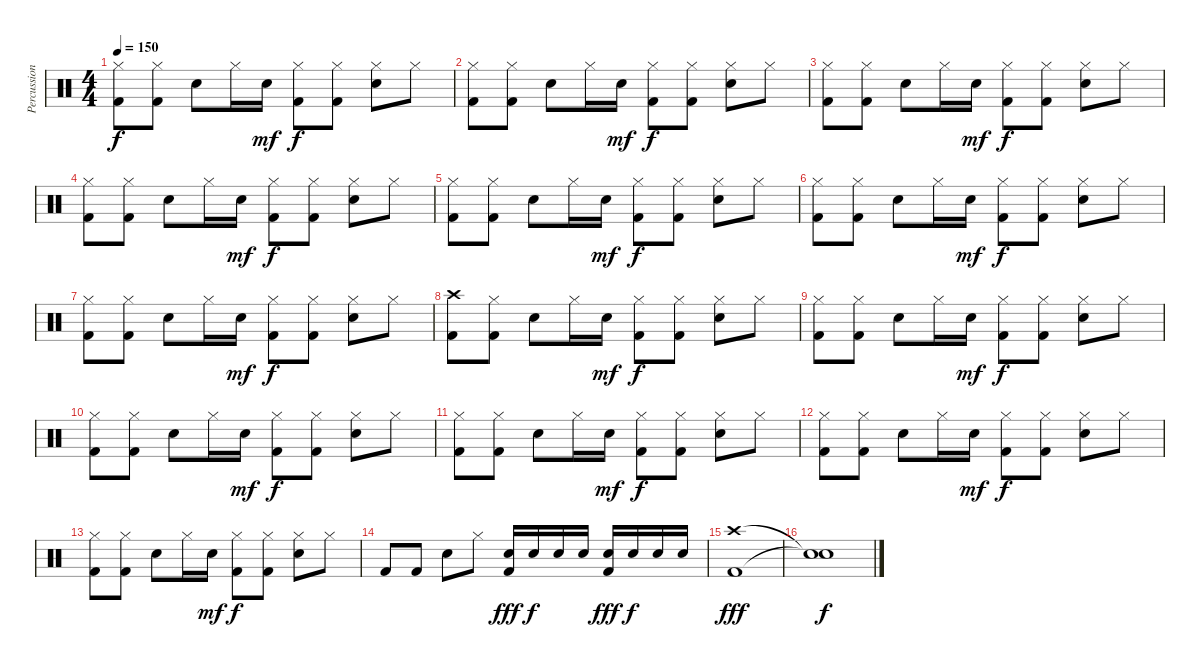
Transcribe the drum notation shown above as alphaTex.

\track ("Percussion" "Percussion") {instrument percussion}
\staff {score}
\articulation defaults
\ts (4 4)
\tempo 150
\clef neutral
\ks c
("Kick (hit) 2" "Hi-Hat (closed)").8{dy f} ("Kick (hit) 2" "Hi-Hat (closed)").8 "Electric Snare (hit)".8 "Hi-Hat (closed)".16 "Electric Snare (hit)".16{dy mf} ("Kick (hit) 2" "Hi-Hat (closed)").8{dy f} ("Kick (hit) 2" "Hi-Hat (closed)").8 ("Electric Snare (hit)" "Hi-Hat (closed)").8 "Hi-Hat (closed)".8 |
("Kick (hit) 2" "Hi-Hat (closed)").8 ("Kick (hit) 2" "Hi-Hat (closed)").8 "Electric Snare (hit)".8 "Hi-Hat (closed)".16 "Electric Snare (hit)".16{dy mf} ("Kick (hit) 2" "Hi-Hat (closed)").8{dy f} ("Kick (hit) 2" "Hi-Hat (closed)").8 ("Electric Snare (hit)" "Hi-Hat (closed)").8 "Hi-Hat (closed)".8 |
("Kick (hit) 2" "Hi-Hat (closed)").8 ("Kick (hit) 2" "Hi-Hat (closed)").8 "Electric Snare (hit)".8 "Hi-Hat (closed)".16 "Electric Snare (hit)".16{dy mf} ("Kick (hit) 2" "Hi-Hat (closed)").8{dy f} ("Kick (hit) 2" "Hi-Hat (closed)").8 ("Electric Snare (hit)" "Hi-Hat (closed)").8 "Hi-Hat (closed)".8 |
("Kick (hit) 2" "Hi-Hat (closed)").8 ("Kick (hit) 2" "Hi-Hat (closed)").8 "Electric Snare (hit)".8 "Hi-Hat (closed)".16 "Electric Snare (hit)".16{dy mf} ("Kick (hit) 2" "Hi-Hat (closed)").8{dy f} ("Kick (hit) 2" "Hi-Hat (closed)").8 ("Electric Snare (hit)" "Hi-Hat (closed)").8 "Hi-Hat (closed)".8 |
("Kick (hit) 2" "Hi-Hat (closed)").8 ("Kick (hit) 2" "Hi-Hat (closed)").8 "Electric Snare (hit)".8 "Hi-Hat (closed)".16 "Electric Snare (hit)".16{dy mf} ("Kick (hit) 2" "Hi-Hat (closed)").8{dy f} ("Kick (hit) 2" "Hi-Hat (closed)").8 ("Electric Snare (hit)" "Hi-Hat (closed)").8 "Hi-Hat (closed)".8 |
("Kick (hit) 2" "Hi-Hat (closed)").8 ("Kick (hit) 2" "Hi-Hat (closed)").8 "Electric Snare (hit)".8 "Hi-Hat (closed)".16 "Electric Snare (hit)".16{dy mf} ("Kick (hit) 2" "Hi-Hat (closed)").8{dy f} ("Kick (hit) 2" "Hi-Hat (closed)").8 ("Electric Snare (hit)" "Hi-Hat (closed)").8 "Hi-Hat (closed)".8 |
("Kick (hit) 2" "Hi-Hat (closed)").8 ("Kick (hit) 2" "Hi-Hat (closed)").8 "Electric Snare (hit)".8 "Hi-Hat (closed)".16 "Electric Snare (hit)".16{dy mf} ("Kick (hit) 2" "Hi-Hat (closed)").8{dy f} ("Kick (hit) 2" "Hi-Hat (closed)").8 ("Electric Snare (hit)" "Hi-Hat (closed)").8 "Hi-Hat (closed)".8 |
("Kick (hit) 2" "Crash high (hit)").8 ("Kick (hit) 2" "Hi-Hat (closed)").8 "Electric Snare (hit)".8 "Hi-Hat (closed)".16 "Electric Snare (hit)".16{dy mf} ("Kick (hit) 2" "Hi-Hat (closed)").8{dy f} ("Kick (hit) 2" "Hi-Hat (closed)").8 ("Electric Snare (hit)" "Hi-Hat (closed)").8 "Hi-Hat (closed)".8 |
("Kick (hit) 2" "Hi-Hat (closed)").8 ("Kick (hit) 2" "Hi-Hat (closed)").8 "Electric Snare (hit)".8 "Hi-Hat (closed)".16 "Electric Snare (hit)".16{dy mf} ("Kick (hit) 2" "Hi-Hat (closed)").8{dy f} ("Kick (hit) 2" "Hi-Hat (closed)").8 ("Electric Snare (hit)" "Hi-Hat (closed)").8 "Hi-Hat (closed)".8 |
("Kick (hit) 2" "Hi-Hat (closed)").8 ("Kick (hit) 2" "Hi-Hat (closed)").8 "Electric Snare (hit)".8 "Hi-Hat (closed)".16 "Electric Snare (hit)".16{dy mf} ("Kick (hit) 2" "Hi-Hat (closed)").8{dy f} ("Kick (hit) 2" "Hi-Hat (closed)").8 ("Electric Snare (hit)" "Hi-Hat (closed)").8 "Hi-Hat (closed)".8 |
("Kick (hit) 2" "Hi-Hat (closed)").8 ("Kick (hit) 2" "Hi-Hat (closed)").8 "Electric Snare (hit)".8 "Hi-Hat (closed)".16 "Electric Snare (hit)".16{dy mf} ("Kick (hit) 2" "Hi-Hat (closed)").8{dy f} ("Kick (hit) 2" "Hi-Hat (closed)").8 ("Electric Snare (hit)" "Hi-Hat (closed)").8 "Hi-Hat (closed)".8 |
("Kick (hit) 2" "Hi-Hat (closed)").8 ("Kick (hit) 2" "Hi-Hat (closed)").8 "Electric Snare (hit)".8 "Hi-Hat (closed)".16 "Electric Snare (hit)".16{dy mf} ("Kick (hit) 2" "Hi-Hat (closed)").8{dy f} ("Kick (hit) 2" "Hi-Hat (closed)").8 ("Electric Snare (hit)" "Hi-Hat (closed)").8 "Hi-Hat (closed)".8 |
("Kick (hit) 2" "Hi-Hat (closed)").8 ("Kick (hit) 2" "Hi-Hat (closed)").8 "Electric Snare (hit)".8 "Hi-Hat (closed)".16 "Electric Snare (hit)".16{dy mf} ("Kick (hit) 2" "Hi-Hat (closed)").8{dy f} ("Kick (hit) 2" "Hi-Hat (closed)").8 ("Electric Snare (hit)" "Hi-Hat (closed)").8 "Hi-Hat (closed)".8 |
"Kick (hit) 2".8 "Kick (hit) 2".8 "Electric Snare (hit)".8 "Hi-Hat (closed)".8 ("Snare (hit) 2" "Kick (hit) 2").16{dy fff} "Electric Snare (hit)".16{dy f} "Electric Snare (hit)".16 "Electric Snare (hit)".16 ("Snare (hit) 2" "Kick (hit) 2").16{dy fff} "Electric Snare (hit)".16{dy f} "Electric Snare (hit)".16 "Electric Snare (hit)".16 |
("Kick (hit) 2" "Crash high (hit)").1{dy fff} |
("Snare (hit)"{t} "Snare (hit)"{t}).1{dy f}
